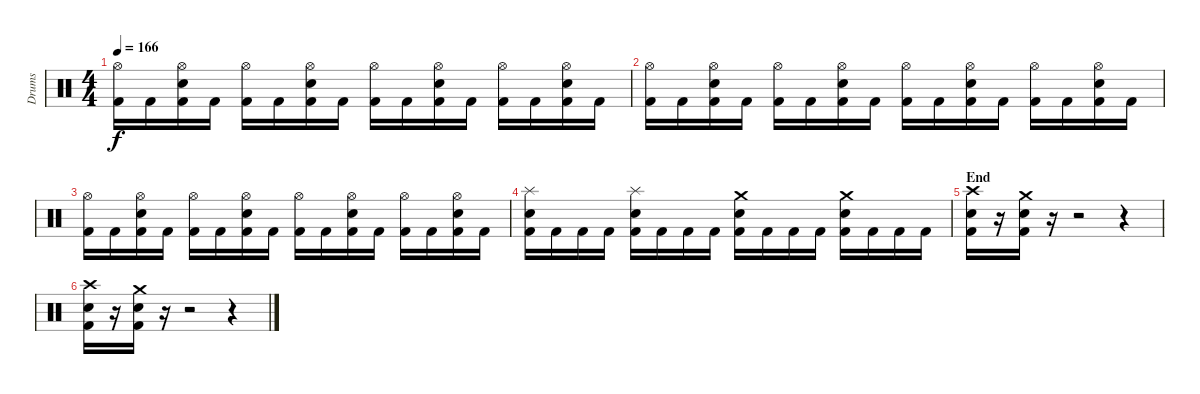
\track ("Drums" "Drums") {instrument percussion}
\staff {score}
\articulation defaults
\ts (4 4)
\tempo 166
\clef neutral
\ks c
("Kick (hit) 2" "Hi-Hat (open)").16{dy f} "Kick (hit) 2".16 ("Kick (hit) 2" "Electric Snare (hit)" "Hi-Hat (open)").16 "Kick (hit) 2".16 ("Kick (hit) 2" "Hi-Hat (open)").16 "Kick (hit) 2".16 ("Kick (hit) 2" "Electric Snare (hit)" "Hi-Hat (open)").16 "Kick (hit) 2".16 ("Kick (hit) 2" "Hi-Hat (open)").16 "Kick (hit) 2".16 ("Kick (hit) 2" "Electric Snare (hit)" "Hi-Hat (open)").16 "Kick (hit) 2".16 ("Kick (hit) 2" "Hi-Hat (open)").16 "Kick (hit) 2".16 ("Kick (hit) 2" "Electric Snare (hit)" "Hi-Hat (open)").16 "Kick (hit) 2".16 |
("Kick (hit) 2" "Hi-Hat (open)").16 "Kick (hit) 2".16 ("Kick (hit) 2" "Electric Snare (hit)" "Hi-Hat (open)").16 "Kick (hit) 2".16 ("Kick (hit) 2" "Hi-Hat (open)").16 "Kick (hit) 2".16 ("Kick (hit) 2" "Electric Snare (hit)" "Hi-Hat (open)").16 "Kick (hit) 2".16 ("Kick (hit) 2" "Hi-Hat (open)").16 "Kick (hit) 2".16 ("Kick (hit) 2" "Electric Snare (hit)" "Hi-Hat (open)").16 "Kick (hit) 2".16 ("Kick (hit) 2" "Hi-Hat (open)").16 "Kick (hit) 2".16 ("Kick (hit) 2" "Electric Snare (hit)" "Hi-Hat (open)").16 "Kick (hit) 2".16 |
("Kick (hit) 2" "Hi-Hat (open)").16 "Kick (hit) 2".16 ("Kick (hit) 2" "Electric Snare (hit)" "Hi-Hat (open)").16 "Kick (hit) 2".16 ("Kick (hit) 2" "Hi-Hat (open)").16 "Kick (hit) 2".16 ("Kick (hit) 2" "Electric Snare (hit)" "Hi-Hat (open)").16 "Kick (hit) 2".16 ("Kick (hit) 2" "Hi-Hat (open)").16 "Kick (hit) 2".16 ("Kick (hit) 2" "Electric Snare (hit)" "Hi-Hat (open)").16 "Kick (hit) 2".16 ("Kick (hit) 2" "Hi-Hat (open)").16 "Kick (hit) 2".16 ("Kick (hit) 2" "Electric Snare (hit)" "Hi-Hat (open)").16 "Kick (hit) 2".16 |
("Kick (hit) 2" "Electric Snare (hit)" "Splash (hit)").16 "Kick (hit) 2".16 "Kick (hit) 2".16 "Kick (hit) 2".16 ("Kick (hit) 2" "Electric Snare (hit)" "Splash (hit)").16 "Kick (hit) 2".16 "Kick (hit) 2".16 "Kick (hit) 2".16 ("Kick (hit) 2" "Electric Snare (hit)" "Crash medium (hit)").16 "Kick (hit) 2".16 "Kick (hit) 2".16 "Kick (hit) 2".16 ("Kick (hit) 2" "Electric Snare (hit)" "Crash medium (hit)").16 "Kick (hit) 2".16 "Kick (hit) 2".16 "Kick (hit) 2".16 |
\section ("" "End")
("Kick (hit) 2" "Electric Snare (hit)" "Crash high (hit)").16 r.16 ("Kick (hit) 2" "Electric Snare (hit)" "Crash medium (hit)").16 r.16 r.2 r.4 |
("Kick (hit) 2" "Electric Snare (hit)" "Crash high (hit)").16 r.16 ("Kick (hit) 2" "Electric Snare (hit)" "Crash medium (hit)").16 r.16 r.2 r.4
